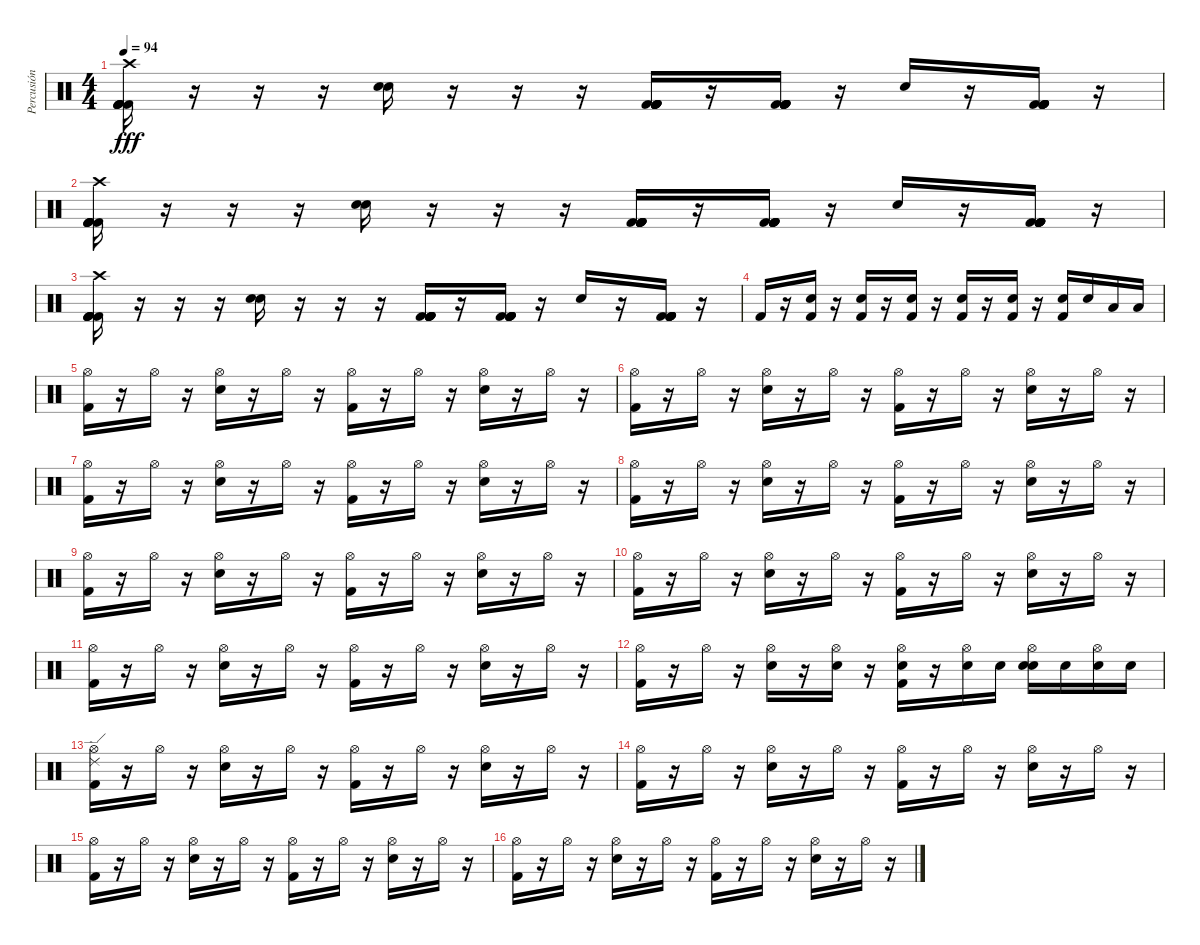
\track ("Percusión" "Percusión") {instrument percussion}
\staff {score}
\articulation defaults
\ts (4 4)
\tempo 94
\clef neutral
\ks c
("Crash high (hit)" "Kick (hit) 2" "Kick (hit) 2" "Kick (hit) 2" "Kick (hit) 2" "Kick (hit) 2").16{dy fff} r.16 r.16 r.16 ("Snare (hit) 2" "Snare (hit) 2").16 r.16 r.16 r.16 ("Kick (hit) 2" "Kick (hit) 2" "Kick (hit) 2" "Kick (hit) 2" "Kick (hit) 2" "Kick (hit) 2").16 r.16 ("Kick (hit) 2" "Kick (hit) 2" "Kick (hit) 2" "Kick (hit) 2" "Kick (hit) 2" "Kick (hit) 2").16 r.16 "Snare (hit) 2".16 r.16 ("Kick (hit) 2" "Kick (hit) 2" "Kick (hit) 2" "Kick (hit) 2" "Kick (hit) 2" "Kick (hit) 2").16 r.16 |
("Crash high (hit)" "Kick (hit) 2" "Kick (hit) 2" "Kick (hit) 2" "Kick (hit) 2" "Kick (hit) 2").16 r.16 r.16 r.16 ("Snare (hit) 2" "Snare (hit) 2").16 r.16 r.16 r.16 ("Kick (hit) 2" "Kick (hit) 2" "Kick (hit) 2" "Kick (hit) 2" "Kick (hit) 2" "Kick (hit) 2").16 r.16 ("Kick (hit) 2" "Kick (hit) 2" "Kick (hit) 2" "Kick (hit) 2" "Kick (hit) 2" "Kick (hit) 2").16 r.16 "Snare (hit) 2".16 r.16 ("Kick (hit) 2" "Kick (hit) 2" "Kick (hit) 2" "Kick (hit) 2" "Kick (hit) 2" "Kick (hit) 2").16 r.16 |
("Crash high (hit)" "Kick (hit) 2" "Kick (hit) 2" "Kick (hit) 2" "Kick (hit) 2" "Kick (hit) 2").16 r.16 r.16 r.16 ("Snare (hit) 2" "Snare (hit) 2").16 r.16 r.16 r.16 ("Kick (hit) 2" "Kick (hit) 2" "Kick (hit) 2" "Kick (hit) 2" "Kick (hit) 2" "Kick (hit) 2").16 r.16 ("Kick (hit) 2" "Kick (hit) 2" "Kick (hit) 2" "Kick (hit) 2" "Kick (hit) 2" "Kick (hit) 2").16 r.16 "Snare (hit) 2".16 r.16 ("Kick (hit) 2" "Kick (hit) 2" "Kick (hit) 2" "Kick (hit) 2" "Kick (hit) 2" "Kick (hit) 2").16 r.16 |
"Kick (hit) 2".16 r.16 ("Kick (hit) 2" "Snare (hit) 2").16 r.16 ("Kick (hit) 2" "Snare (hit) 2").16 r.16 ("Kick (hit) 2" "Snare (hit) 2").16 r.16 ("Kick (hit) 2" "Snare (hit) 2").16 r.16 ("Kick (hit) 2" "Snare (hit) 2").16 r.16 ("Kick (hit) 2" "Snare (hit) 2").16 "Snare (hit) 2".16 "Low Tom (hit)".16 "Low Tom (hit)".16 |
("Hi-Hat (open)" "Kick (hit) 2").16 r.16 "Hi-Hat (open)".16 r.16 ("Hi-Hat (open)" "Snare (hit) 2").16 r.16 "Hi-Hat (open)".16 r.16 ("Hi-Hat (open)" "Kick (hit) 2").16 r.16 "Hi-Hat (open)".16 r.16 ("Hi-Hat (open)" "Snare (hit) 2").16 r.16 "Hi-Hat (open)".16 r.16 |
("Hi-Hat (open)" "Kick (hit) 2").16 r.16 "Hi-Hat (open)".16 r.16 ("Hi-Hat (open)" "Snare (hit) 2").16 r.16 "Hi-Hat (open)".16 r.16 ("Hi-Hat (open)" "Kick (hit) 2").16 r.16 "Hi-Hat (open)".16 r.16 ("Hi-Hat (open)" "Snare (hit) 2").16 r.16 "Hi-Hat (open)".16 r.16 |
("Hi-Hat (open)" "Kick (hit) 2").16 r.16 "Hi-Hat (open)".16 r.16 ("Hi-Hat (open)" "Snare (hit) 2").16 r.16 "Hi-Hat (open)".16 r.16 ("Hi-Hat (open)" "Kick (hit) 2").16 r.16 "Hi-Hat (open)".16 r.16 ("Hi-Hat (open)" "Snare (hit) 2").16 r.16 "Hi-Hat (open)".16 r.16 |
("Hi-Hat (open)" "Kick (hit) 2").16 r.16 "Hi-Hat (open)".16 r.16 ("Hi-Hat (open)" "Snare (hit) 2").16 r.16 "Hi-Hat (open)".16 r.16 ("Hi-Hat (open)" "Kick (hit) 2").16 r.16 "Hi-Hat (open)".16 r.16 ("Hi-Hat (open)" "Snare (hit) 2").16 r.16 "Hi-Hat (open)".16 r.16 |
("Hi-Hat (open)" "Kick (hit) 2").16 r.16 "Hi-Hat (open)".16 r.16 ("Hi-Hat (open)" "Snare (hit) 2").16 r.16 "Hi-Hat (open)".16 r.16 ("Hi-Hat (open)" "Kick (hit) 2").16 r.16 "Hi-Hat (open)".16 r.16 ("Hi-Hat (open)" "Snare (hit) 2").16 r.16 "Hi-Hat (open)".16 r.16 |
("Hi-Hat (open)" "Kick (hit) 2").16 r.16 "Hi-Hat (open)".16 r.16 ("Hi-Hat (open)" "Snare (hit) 2").16 r.16 "Hi-Hat (open)".16 r.16 ("Hi-Hat (open)" "Kick (hit) 2").16 r.16 "Hi-Hat (open)".16 r.16 ("Hi-Hat (open)" "Snare (hit) 2").16 r.16 "Hi-Hat (open)".16 r.16 |
("Hi-Hat (open)" "Kick (hit) 2").16 r.16 "Hi-Hat (open)".16 r.16 ("Hi-Hat (open)" "Snare (hit) 2").16 r.16 "Hi-Hat (open)".16 r.16 ("Hi-Hat (open)" "Kick (hit) 2").16 r.16 "Hi-Hat (open)".16 r.16 ("Hi-Hat (open)" "Snare (hit) 2").16 r.16 "Hi-Hat (open)".16 r.16 |
("Hi-Hat (open)" "Kick (hit) 2").16 r.16 "Hi-Hat (open)".16 r.16 ("Hi-Hat (open)" "Snare (hit) 2").16 r.16 ("Hi-Hat (open)" "Snare (hit) 2").16 r.16 ("Hi-Hat (open)" "Kick (hit) 2" "Snare (hit) 2").16 r.16 ("Hi-Hat (open)" "Snare (hit) 2").16 "Snare (hit) 2".16 ("Hi-Hat (open)" "Snare (hit) 2" "Snare (hit) 2").16 "Snare (hit) 2".16 ("Hi-Hat (open)" "Snare (hit) 2").16 "Snare (hit) 2".16 |
("Hi-Hat (open)" "Kick (hit) 2" "Ride (edge) 2").16 r.16 "Hi-Hat (open)".16 r.16 ("Hi-Hat (open)" "Snare (hit) 2").16 r.16 "Hi-Hat (open)".16 r.16 ("Hi-Hat (open)" "Kick (hit) 2").16 r.16 "Hi-Hat (open)".16 r.16 ("Hi-Hat (open)" "Snare (hit) 2").16 r.16 "Hi-Hat (open)".16 r.16 |
("Hi-Hat (open)" "Kick (hit) 2").16 r.16 "Hi-Hat (open)".16 r.16 ("Hi-Hat (open)" "Snare (hit) 2").16 r.16 "Hi-Hat (open)".16 r.16 ("Hi-Hat (open)" "Kick (hit) 2").16 r.16 "Hi-Hat (open)".16 r.16 ("Hi-Hat (open)" "Snare (hit) 2").16 r.16 "Hi-Hat (open)".16 r.16 |
("Hi-Hat (open)" "Kick (hit) 2").16 r.16 "Hi-Hat (open)".16 r.16 ("Hi-Hat (open)" "Snare (hit) 2").16 r.16 "Hi-Hat (open)".16 r.16 ("Hi-Hat (open)" "Kick (hit) 2").16 r.16 "Hi-Hat (open)".16 r.16 ("Hi-Hat (open)" "Snare (hit) 2").16 r.16 "Hi-Hat (open)".16 r.16 |
("Hi-Hat (open)" "Kick (hit) 2").16 r.16 "Hi-Hat (open)".16 r.16 ("Hi-Hat (open)" "Snare (hit) 2").16 r.16 "Hi-Hat (open)".16 r.16 ("Hi-Hat (open)" "Kick (hit) 2").16 r.16 "Hi-Hat (open)".16 r.16 ("Hi-Hat (open)" "Snare (hit) 2").16 r.16 "Hi-Hat (open)".16 r.16
